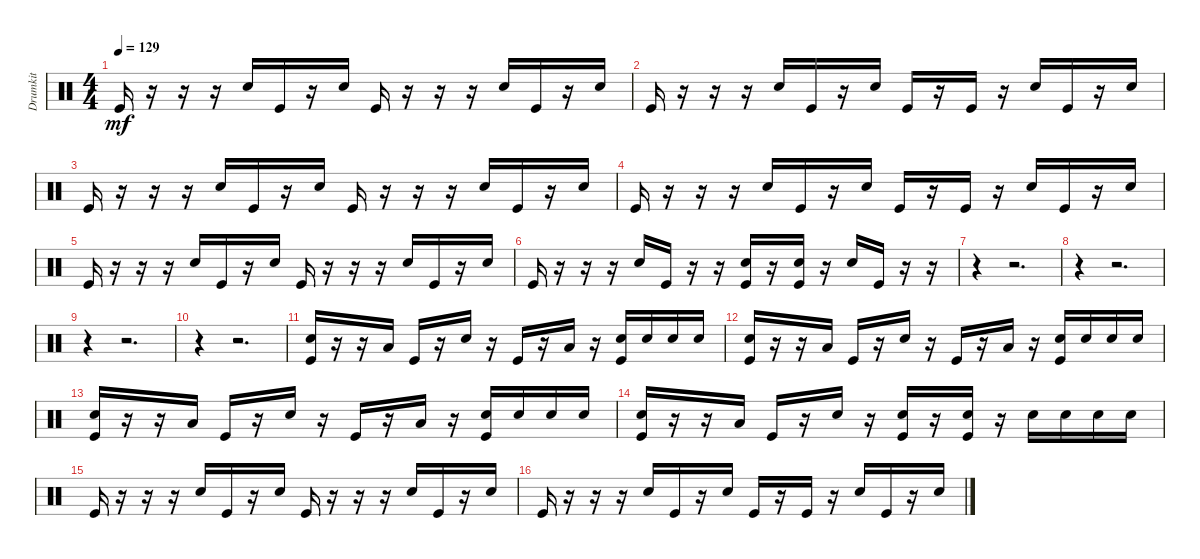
\track ("Drumkit" "Drumkit") {instrument percussion}
\staff {score}
\articulation defaults
\ts (4 4)
\tempo 129
\clef neutral
\ks c "Kick (hit)".16{dy mf}
r.16 r.16 r.16 "Snare (hit) 2".16 "Kick (hit)".16 r.16 "Snare (hit) 2".16 "Kick (hit)".16 r.16 r.16 r.16 "Snare (hit) 2".16 "Kick (hit)".16 r.16 "Snare (hit) 2".16 |
"Kick (hit)".16 r.16 r.16 r.16 "Snare (hit) 2".16 "Kick (hit)".16 r.16 "Snare (hit) 2".16 "Kick (hit)".16 r.16 "Kick (hit)".16 r.16 "Snare (hit) 2".16 "Kick (hit)".16 r.16 "Snare (hit) 2".16 |
"Kick (hit)".16 r.16 r.16 r.16 "Snare (hit) 2".16 "Kick (hit)".16 r.16 "Snare (hit) 2".16 "Kick (hit)".16 r.16 r.16 r.16 "Snare (hit) 2".16 "Kick (hit)".16 r.16 "Snare (hit) 2".16 |
"Kick (hit)".16 r.16 r.16 r.16 "Snare (hit) 2".16 "Kick (hit)".16 r.16 "Snare (hit) 2".16 "Kick (hit)".16 r.16 "Kick (hit)".16 r.16 "Snare (hit) 2".16 "Kick (hit)".16 r.16 "Snare (hit) 2".16 |
"Kick (hit)".16 r.16 r.16 r.16 "Snare (hit) 2".16 "Kick (hit)".16 r.16 "Snare (hit) 2".16 "Kick (hit)".16 r.16 r.16 r.16 "Snare (hit) 2".16 "Kick (hit)".16 r.16 "Snare (hit) 2".16 |
"Kick (hit)".16 r.16 r.16 r.16 "Snare (hit) 2".16 "Kick (hit)".16 r.16 r.16 ("Kick (hit)" "Snare (hit) 2").16 r.16 ("Kick (hit)" "Snare (hit) 2").16 r.16 "Snare (hit) 2".16 "Kick (hit)".16 r.16 r.16 |
r.4 r.2{d} |
r.4 r.2{d} |
r.4 r.2{d} |
r.4 r.2{d} |
("Kick (hit)" "Snare (hit) 2").16 r.16 r.16 "Low Tom (hit)".16 "Kick (hit)".16 r.16 "Snare (hit) 2".16 r.16 "Kick (hit)".16 r.16 "Low Floor Tom (hit)".16 r.16 ("Kick (hit)" "Snare (hit) 2").16 "Snare (hit) 2".16 "Snare (hit) 2".16 "Snare (hit) 2".16 |
("Kick (hit)" "Snare (hit) 2").16 r.16 r.16 "Low Tom (hit)".16 "Kick (hit)".16 r.16 "Snare (hit) 2".16 r.16 "Kick (hit)".16 r.16 "Low Floor Tom (hit)".16 r.16 ("Kick (hit)" "Snare (hit) 2").16 "Snare (hit) 2".16 "Snare (hit) 2".16 "Snare (hit) 2".16 |
("Kick (hit)" "Snare (hit) 2").16 r.16 r.16 "Low Tom (hit)".16 "Kick (hit)".16 r.16 "Snare (hit) 2".16 r.16 "Kick (hit)".16 r.16 "Low Floor Tom (hit)".16 r.16 ("Kick (hit)" "Snare (hit) 2").16 "Snare (hit) 2".16 "Snare (hit) 2".16 "Snare (hit) 2".16 |
("Kick (hit)" "Snare (hit) 2").16 r.16 r.16 "Low Tom (hit)".16 "Kick (hit)".16 r.16 "Snare (hit) 2".16 r.16 ("Snare (hit) 2" "Kick (hit)").16 r.16 ("Snare (hit) 2" "Kick (hit)").16 r.16 "Snare (hit) 2".16 "Snare (hit) 2".16 "Snare (hit) 2".16 "Snare (hit) 2".16 |
"Kick (hit)".16 r.16 r.16 r.16 "Snare (hit) 2".16 "Kick (hit)".16 r.16 "Snare (hit) 2".16 "Kick (hit)".16 r.16 r.16 r.16 "Snare (hit) 2".16 "Kick (hit)".16 r.16 "Snare (hit) 2".16 |
"Kick (hit)".16 r.16 r.16 r.16 "Snare (hit) 2".16 "Kick (hit)".16 r.16 "Snare (hit) 2".16 "Kick (hit)".16 r.16 "Kick (hit)".16 r.16 "Snare (hit) 2".16 "Kick (hit)".16 r.16 "Snare (hit) 2".16
